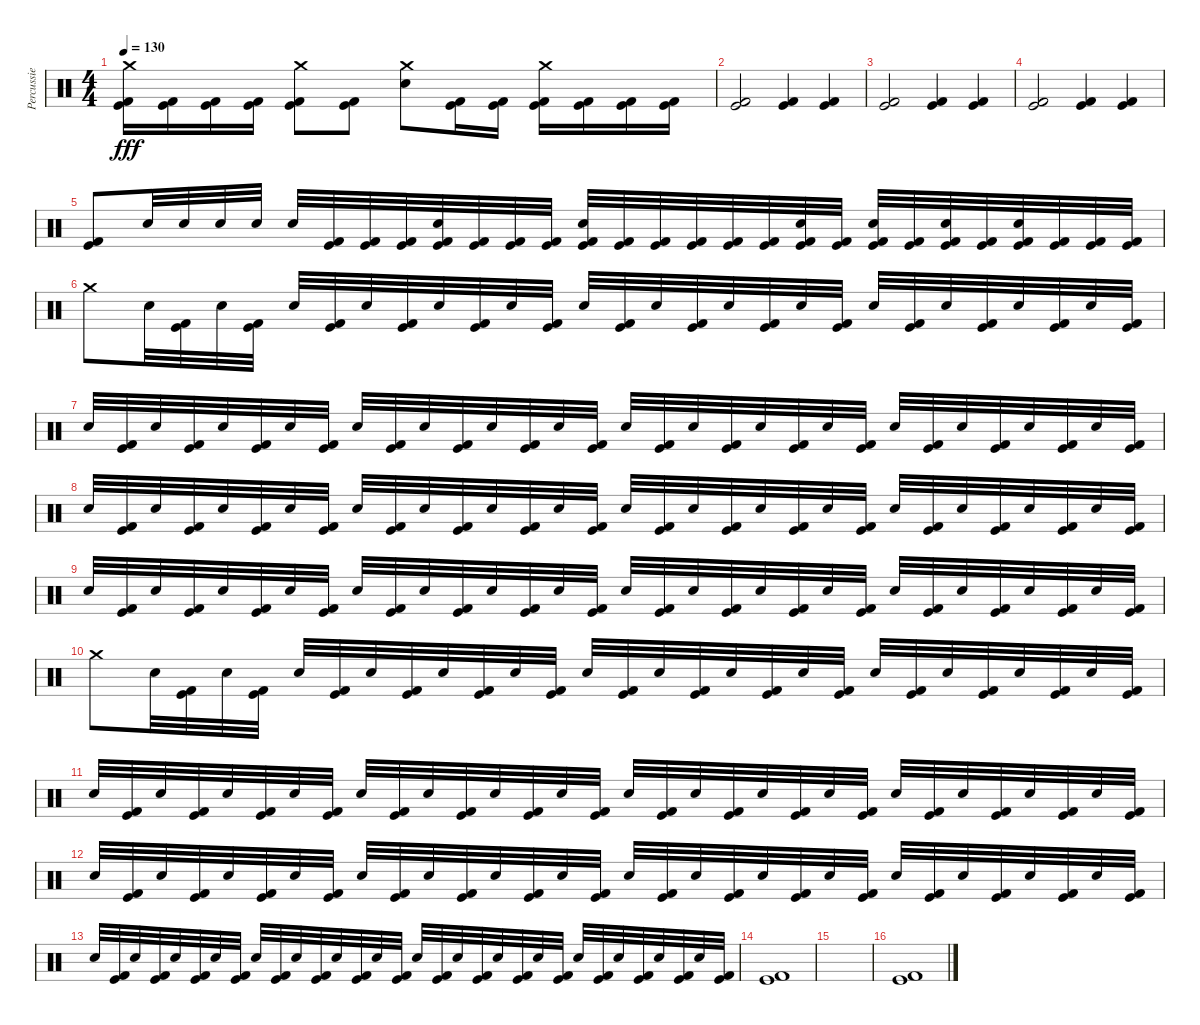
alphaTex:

\track ("Percussie" "Percussie") {instrument percussion}
\staff {score}
\articulation defaults
\ts (4 4)
\tempo 130
\clef neutral
\ks c
("Crash medium (hit)" "Kick (hit)" "Kick (hit) 2").16{dy fff} ("Kick (hit)" "Kick (hit) 2").16 ("Kick (hit)" "Kick (hit) 2").16 ("Kick (hit)" "Kick (hit) 2").16 ("Crash medium (hit)" "Kick (hit)" "Kick (hit) 2").8 ("Kick (hit)" "Kick (hit) 2").8 ("Crash medium (hit)" "Electric Snare (hit)").8 ("Kick (hit)" "Kick (hit) 2").16 ("Kick (hit)" "Kick (hit) 2").16 ("Crash medium (hit)" "Kick (hit)" "Kick (hit) 2").16 ("Kick (hit)" "Kick (hit) 2").16 ("Kick (hit)" "Kick (hit) 2").16 ("Kick (hit)" "Kick (hit) 2").16 |
("Kick (hit)" "Kick (hit) 2").2 ("Kick (hit)" "Kick (hit) 2").4 ("Kick (hit)" "Kick (hit) 2").4 |
("Kick (hit)" "Kick (hit) 2").2 ("Kick (hit)" "Kick (hit) 2").4 ("Kick (hit)" "Kick (hit) 2").4 |
("Kick (hit)" "Kick (hit) 2").2 ("Kick (hit)" "Kick (hit) 2").4 ("Kick (hit)" "Kick (hit) 2").4 |
("Kick (hit)" "Kick (hit) 2").8 "Electric Snare (hit)".32 "Electric Snare (hit)".32 "Electric Snare (hit)".32 "Electric Snare (hit)".32 "Electric Snare (hit)".32 ("Kick (hit)" "Kick (hit) 2").32 ("Kick (hit)" "Kick (hit) 2").32 ("Kick (hit)" "Kick (hit) 2").32 ("Electric Snare (hit)" "Kick (hit)" "Kick (hit) 2").32 ("Kick (hit)" "Kick (hit) 2").32 ("Kick (hit)" "Kick (hit) 2").32 ("Kick (hit)" "Kick (hit) 2").32 ("Electric Snare (hit)" "Kick (hit)" "Kick (hit) 2").32 ("Kick (hit)" "Kick (hit) 2").32 ("Kick (hit)" "Kick (hit) 2").32 ("Kick (hit)" "Kick (hit) 2").32 ("Kick (hit)" "Kick (hit) 2").32 ("Kick (hit)" "Kick (hit) 2").32 ("Electric Snare (hit)" "Kick (hit)" "Kick (hit) 2").32 ("Kick (hit)" "Kick (hit) 2").32 ("Electric Snare (hit)" "Kick (hit)" "Kick (hit) 2").32 ("Kick (hit)" "Kick (hit) 2").32 ("Electric Snare (hit)" "Kick (hit)" "Kick (hit) 2").32 ("Kick (hit)" "Kick (hit) 2").32 ("Electric Snare (hit)" "Kick (hit)" "Kick (hit) 2").32 ("Kick (hit)" "Kick (hit) 2").32 ("Kick (hit)" "Kick (hit) 2").32 ("Kick (hit)" "Kick (hit) 2").32 |
"Crash medium (hit)".8 "Electric Snare (hit)".32 ("Kick (hit)" "Kick (hit) 2").32 "Electric Snare (hit)".32 ("Kick (hit)" "Kick (hit) 2").32 "Electric Snare (hit)".32 ("Kick (hit)" "Kick (hit) 2").32 "Electric Snare (hit)".32 ("Kick (hit)" "Kick (hit) 2").32 "Electric Snare (hit)".32 ("Kick (hit)" "Kick (hit) 2").32 "Electric Snare (hit)".32 ("Kick (hit)" "Kick (hit) 2").32 "Electric Snare (hit)".32 ("Kick (hit)" "Kick (hit) 2").32 "Electric Snare (hit)".32 ("Kick (hit)" "Kick (hit) 2").32 "Electric Snare (hit)".32 ("Kick (hit)" "Kick (hit) 2").32 "Electric Snare (hit)".32 ("Kick (hit)" "Kick (hit) 2").32 "Electric Snare (hit)".32 ("Kick (hit)" "Kick (hit) 2").32 "Electric Snare (hit)".32 ("Kick (hit)" "Kick (hit) 2").32 "Electric Snare (hit)".32 ("Kick (hit)" "Kick (hit) 2").32 "Electric Snare (hit)".32 ("Kick (hit)" "Kick (hit) 2").32 |
"Electric Snare (hit)".32 ("Kick (hit)" "Kick (hit) 2").32 "Electric Snare (hit)".32 ("Kick (hit)" "Kick (hit) 2").32 "Electric Snare (hit)".32 ("Kick (hit)" "Kick (hit) 2").32 "Electric Snare (hit)".32 ("Kick (hit)" "Kick (hit) 2").32 "Electric Snare (hit)".32 ("Kick (hit)" "Kick (hit) 2").32 "Electric Snare (hit)".32 ("Kick (hit)" "Kick (hit) 2").32 "Electric Snare (hit)".32 ("Kick (hit)" "Kick (hit) 2").32 "Electric Snare (hit)".32 ("Kick (hit)" "Kick (hit) 2").32 "Electric Snare (hit)".32 ("Kick (hit)" "Kick (hit) 2").32 "Electric Snare (hit)".32 ("Kick (hit)" "Kick (hit) 2").32 "Electric Snare (hit)".32 ("Kick (hit)" "Kick (hit) 2").32 "Electric Snare (hit)".32 ("Kick (hit)" "Kick (hit) 2").32 "Electric Snare (hit)".32 ("Kick (hit)" "Kick (hit) 2").32 "Electric Snare (hit)".32 ("Kick (hit)" "Kick (hit) 2").32 "Electric Snare (hit)".32 ("Kick (hit)" "Kick (hit) 2").32 "Electric Snare (hit)".32 ("Kick (hit)" "Kick (hit) 2").32 |
"Electric Snare (hit)".32 ("Kick (hit)" "Kick (hit) 2").32 "Electric Snare (hit)".32 ("Kick (hit)" "Kick (hit) 2").32 "Electric Snare (hit)".32 ("Kick (hit)" "Kick (hit) 2").32 "Electric Snare (hit)".32 ("Kick (hit)" "Kick (hit) 2").32 "Electric Snare (hit)".32 ("Kick (hit)" "Kick (hit) 2").32 "Electric Snare (hit)".32 ("Kick (hit)" "Kick (hit) 2").32 "Electric Snare (hit)".32 ("Kick (hit)" "Kick (hit) 2").32 "Electric Snare (hit)".32 ("Kick (hit)" "Kick (hit) 2").32 "Electric Snare (hit)".32 ("Kick (hit)" "Kick (hit) 2").32 "Electric Snare (hit)".32 ("Kick (hit)" "Kick (hit) 2").32 "Electric Snare (hit)".32 ("Kick (hit)" "Kick (hit) 2").32 "Electric Snare (hit)".32 ("Kick (hit)" "Kick (hit) 2").32 "Electric Snare (hit)".32 ("Kick (hit)" "Kick (hit) 2").32 "Electric Snare (hit)".32 ("Kick (hit)" "Kick (hit) 2").32 "Electric Snare (hit)".32 ("Kick (hit)" "Kick (hit) 2").32 "Electric Snare (hit)".32 ("Kick (hit)" "Kick (hit) 2").32 |
"Electric Snare (hit)".32 ("Kick (hit)" "Kick (hit) 2").32 "Electric Snare (hit)".32 ("Kick (hit)" "Kick (hit) 2").32 "Electric Snare (hit)".32 ("Kick (hit)" "Kick (hit) 2").32 "Electric Snare (hit)".32 ("Kick (hit)" "Kick (hit) 2").32 "Electric Snare (hit)".32 ("Kick (hit)" "Kick (hit) 2").32 "Electric Snare (hit)".32 ("Kick (hit)" "Kick (hit) 2").32 "Electric Snare (hit)".32 ("Kick (hit)" "Kick (hit) 2").32 "Electric Snare (hit)".32 ("Kick (hit)" "Kick (hit) 2").32 "Electric Snare (hit)".32 ("Kick (hit)" "Kick (hit) 2").32 "Electric Snare (hit)".32 ("Kick (hit)" "Kick (hit) 2").32 "Electric Snare (hit)".32 ("Kick (hit)" "Kick (hit) 2").32 "Electric Snare (hit)".32 ("Kick (hit)" "Kick (hit) 2").32 "Electric Snare (hit)".32 ("Kick (hit)" "Kick (hit) 2").32 "Electric Snare (hit)".32 ("Kick (hit)" "Kick (hit) 2").32 "Electric Snare (hit)".32 ("Kick (hit)" "Kick (hit) 2").32 "Electric Snare (hit)".32 ("Kick (hit)" "Kick (hit) 2").32 |
"Crash medium (hit)".8 "Electric Snare (hit)".32 ("Kick (hit)" "Kick (hit) 2").32 "Electric Snare (hit)".32 ("Kick (hit)" "Kick (hit) 2").32 "Electric Snare (hit)".32 ("Kick (hit)" "Kick (hit) 2").32 "Electric Snare (hit)".32 ("Kick (hit)" "Kick (hit) 2").32 "Electric Snare (hit)".32 ("Kick (hit)" "Kick (hit) 2").32 "Electric Snare (hit)".32 ("Kick (hit)" "Kick (hit) 2").32 "Electric Snare (hit)".32 ("Kick (hit)" "Kick (hit) 2").32 "Electric Snare (hit)".32 ("Kick (hit)" "Kick (hit) 2").32 "Electric Snare (hit)".32 ("Kick (hit)" "Kick (hit) 2").32 "Electric Snare (hit)".32 ("Kick (hit)" "Kick (hit) 2").32 "Electric Snare (hit)".32 ("Kick (hit)" "Kick (hit) 2").32 "Electric Snare (hit)".32 ("Kick (hit)" "Kick (hit) 2").32 "Electric Snare (hit)".32 ("Kick (hit)" "Kick (hit) 2").32 "Electric Snare (hit)".32 ("Kick (hit)" "Kick (hit) 2").32 |
"Electric Snare (hit)".32 ("Kick (hit)" "Kick (hit) 2").32 "Electric Snare (hit)".32 ("Kick (hit)" "Kick (hit) 2").32 "Electric Snare (hit)".32 ("Kick (hit)" "Kick (hit) 2").32 "Electric Snare (hit)".32 ("Kick (hit)" "Kick (hit) 2").32 "Electric Snare (hit)".32 ("Kick (hit)" "Kick (hit) 2").32 "Electric Snare (hit)".32 ("Kick (hit)" "Kick (hit) 2").32 "Electric Snare (hit)".32 ("Kick (hit)" "Kick (hit) 2").32 "Electric Snare (hit)".32 ("Kick (hit)" "Kick (hit) 2").32 "Electric Snare (hit)".32 ("Kick (hit)" "Kick (hit) 2").32 "Electric Snare (hit)".32 ("Kick (hit)" "Kick (hit) 2").32 "Electric Snare (hit)".32 ("Kick (hit)" "Kick (hit) 2").32 "Electric Snare (hit)".32 ("Kick (hit)" "Kick (hit) 2").32 "Electric Snare (hit)".32 ("Kick (hit)" "Kick (hit) 2").32 "Electric Snare (hit)".32 ("Kick (hit)" "Kick (hit) 2").32 "Electric Snare (hit)".32 ("Kick (hit)" "Kick (hit) 2").32 "Electric Snare (hit)".32 ("Kick (hit)" "Kick (hit) 2").32 |
"Electric Snare (hit)".32 ("Kick (hit)" "Kick (hit) 2").32 "Electric Snare (hit)".32 ("Kick (hit)" "Kick (hit) 2").32 "Electric Snare (hit)".32 ("Kick (hit)" "Kick (hit) 2").32 "Electric Snare (hit)".32 ("Kick (hit)" "Kick (hit) 2").32 "Electric Snare (hit)".32 ("Kick (hit)" "Kick (hit) 2").32 "Electric Snare (hit)".32 ("Kick (hit)" "Kick (hit) 2").32 "Electric Snare (hit)".32 ("Kick (hit)" "Kick (hit) 2").32 "Electric Snare (hit)".32 ("Kick (hit)" "Kick (hit) 2").32 "Electric Snare (hit)".32 ("Kick (hit)" "Kick (hit) 2").32 "Electric Snare (hit)".32 ("Kick (hit)" "Kick (hit) 2").32 "Electric Snare (hit)".32 ("Kick (hit)" "Kick (hit) 2").32 "Electric Snare (hit)".32 ("Kick (hit)" "Kick (hit) 2").32 "Electric Snare (hit)".32 ("Kick (hit)" "Kick (hit) 2").32 "Electric Snare (hit)".32 ("Kick (hit)" "Kick (hit) 2").32 "Electric Snare (hit)".32 ("Kick (hit)" "Kick (hit) 2").32 "Electric Snare (hit)".32 ("Kick (hit)" "Kick (hit) 2").32 |
"Electric Snare (hit)".32 ("Kick (hit)" "Kick (hit) 2").32 "Electric Snare (hit)".32 ("Kick (hit)" "Kick (hit) 2").32 "Electric Snare (hit)".32 ("Kick (hit)" "Kick (hit) 2").32 "Electric Snare (hit)".32 ("Kick (hit)" "Kick (hit) 2").32 "Electric Snare (hit)".32 ("Kick (hit)" "Kick (hit) 2").32 "Electric Snare (hit)".32 ("Kick (hit)" "Kick (hit) 2").32 "Electric Snare (hit)".32 ("Kick (hit)" "Kick (hit) 2").32 "Electric Snare (hit)".32 ("Kick (hit)" "Kick (hit) 2").32 "Electric Snare (hit)".32 ("Kick (hit)" "Kick (hit) 2").32 "Electric Snare (hit)".32 ("Kick (hit)" "Kick (hit) 2").32 "Electric Snare (hit)".32 ("Kick (hit)" "Kick (hit) 2").32 "Electric Snare (hit)".32 ("Kick (hit)" "Kick (hit) 2").32 "Electric Snare (hit)".32 ("Kick (hit)" "Kick (hit) 2").32 "Electric Snare (hit)".32 ("Kick (hit)" "Kick (hit) 2").32 "Electric Snare (hit)".32 ("Kick (hit)" "Kick (hit) 2").32 "Electric Snare (hit)".32 ("Kick (hit)" "Kick (hit) 2").32 |
("Kick (hit)" "Kick (hit) 2").1 |
|
("Kick (hit)" "Kick (hit) 2").1
